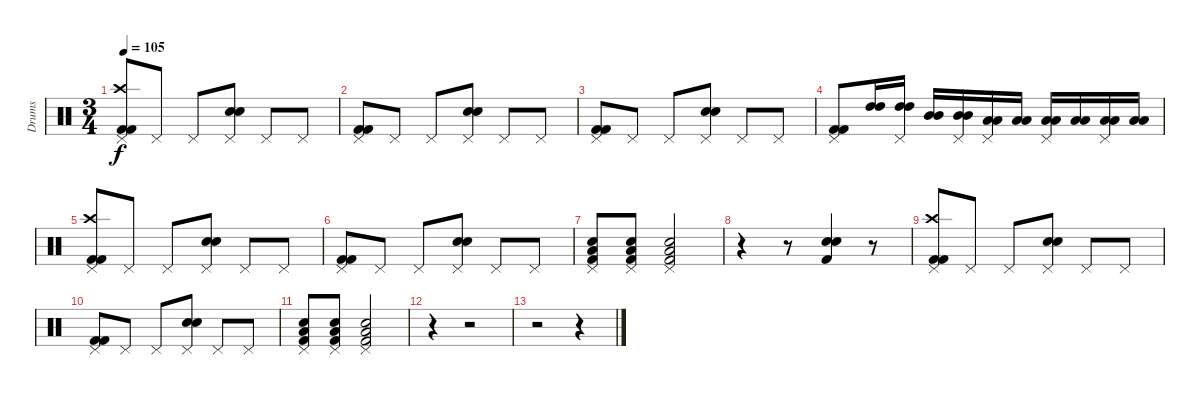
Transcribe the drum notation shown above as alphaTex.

\track ("Drums" "Drums") {instrument percussion}
\staff {score}
\articulation defaults
\ts (3 4)
\tempo 105
\clef neutral
\ks c
("Pedal Hi-Hat (hit)" "Crash high (hit)" "Kick (hit) 2" "Kick (hit) 2").8{dy f} "Pedal Hi-Hat (hit)".8 "Pedal Hi-Hat (hit)".8 ("Pedal Hi-Hat (hit)" "Electric Snare (hit)" "Electric Snare (hit)").8 "Pedal Hi-Hat (hit)".8 "Pedal Hi-Hat (hit)".8 |
("Pedal Hi-Hat (hit)" "Kick (hit) 2" "Kick (hit) 2").8 "Pedal Hi-Hat (hit)".8 "Pedal Hi-Hat (hit)".8 ("Pedal Hi-Hat (hit)" "Electric Snare (hit)" "Electric Snare (hit)").8 "Pedal Hi-Hat (hit)".8 "Pedal Hi-Hat (hit)".8 |
("Pedal Hi-Hat (hit)" "Kick (hit) 2" "Kick (hit) 2").8 "Pedal Hi-Hat (hit)".8 "Pedal Hi-Hat (hit)".8 ("Pedal Hi-Hat (hit)" "Electric Snare (hit)" "Electric Snare (hit)").8 "Pedal Hi-Hat (hit)".8 "Pedal Hi-Hat (hit)".8 |
("Pedal Hi-Hat (hit)" "Kick (hit) 2" "Kick (hit) 2").8 ("High Tom (hit)" "High Tom (hit)").16 ("Pedal Hi-Hat (hit)" "High Tom (hit)" "High Tom (hit)").16 ("Mid Tom (hit)" "Mid Tom (hit)").16 ("Pedal Hi-Hat (hit)" "Mid Tom (hit)" "Mid Tom (hit)").16 ("Pedal Hi-Hat (hit)" "Low Tom (hit)" "Low Tom (hit)").16 ("Low Tom (hit)" "Low Tom (hit)").16 ("Pedal Hi-Hat (hit)" "Low Floor Tom (hit)" "Low Floor Tom (hit)").16 ("Low Floor Tom (hit)" "Low Floor Tom (hit)").16 ("Pedal Hi-Hat (hit)" "Low Floor Tom (hit)" "Low Floor Tom (hit)").16 ("Low Floor Tom (hit)" "Low Floor Tom (hit)").16 |
("Pedal Hi-Hat (hit)" "Crash high (hit)" "Kick (hit) 2" "Kick (hit) 2").8 "Pedal Hi-Hat (hit)".8 "Pedal Hi-Hat (hit)".8 ("Pedal Hi-Hat (hit)" "Electric Snare (hit)" "Electric Snare (hit)").8 "Pedal Hi-Hat (hit)".8 "Pedal Hi-Hat (hit)".8 |
("Pedal Hi-Hat (hit)" "Kick (hit) 2" "Kick (hit) 2").8 "Pedal Hi-Hat (hit)".8 "Pedal Hi-Hat (hit)".8 ("Pedal Hi-Hat (hit)" "Electric Snare (hit)" "Electric Snare (hit)").8 "Pedal Hi-Hat (hit)".8 "Pedal Hi-Hat (hit)".8 |
("Low Tom (hit)" "Pedal Hi-Hat (hit)" "Snare (hit) 2" "Kick (hit) 2").8 ("Low Tom (hit)" "Pedal Hi-Hat (hit)" "Snare (hit) 2" "Kick (hit) 2").8 ("Low Tom (hit)" "Pedal Hi-Hat (hit)" "Snare (hit) 2" "Kick (hit) 2").2 |
r.4 r.8 ("Electric Snare (hit)" "Snare (hit) 2" "Kick (hit) 2").4 r.8 |
("Pedal Hi-Hat (hit)" "Crash high (hit)" "Kick (hit) 2" "Kick (hit) 2").8 "Pedal Hi-Hat (hit)".8 "Pedal Hi-Hat (hit)".8 ("Pedal Hi-Hat (hit)" "Electric Snare (hit)" "Electric Snare (hit)").8 "Pedal Hi-Hat (hit)".8 "Pedal Hi-Hat (hit)".8 |
("Pedal Hi-Hat (hit)" "Kick (hit) 2" "Kick (hit) 2").8 "Pedal Hi-Hat (hit)".8 "Pedal Hi-Hat (hit)".8 ("Pedal Hi-Hat (hit)" "Electric Snare (hit)" "Electric Snare (hit)").8 "Pedal Hi-Hat (hit)".8 "Pedal Hi-Hat (hit)".8 |
("Low Tom (hit)" "Pedal Hi-Hat (hit)" "Snare (hit) 2" "Kick (hit) 2").8 ("Low Tom (hit)" "Pedal Hi-Hat (hit)" "Snare (hit) 2" "Kick (hit) 2").8 ("Low Tom (hit)" "Pedal Hi-Hat (hit)" "Snare (hit) 2" "Kick (hit) 2").2 |
r.4 r.2 |
r.2 r.4
